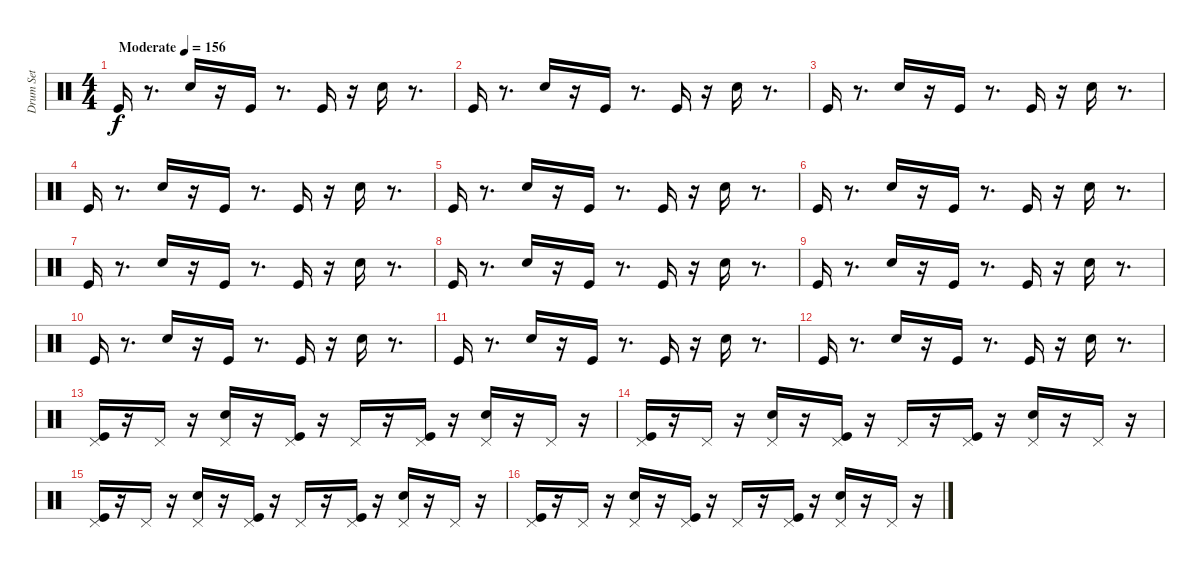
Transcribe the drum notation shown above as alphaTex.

\track ("Drum Set" "Drum Set") {instrument percussion}
\staff {score}
\articulation defaults
\ts (4 4)
\tempo (156 "Moderate")
\clef neutral
\ks c "Kick (hit)".16{dy f}
r.8{d} "Snare (hit) 2".16 r.16 "Kick (hit)".16 r.8{d} "Kick (hit)".16 r.16 "Snare (hit) 2".16 r.8{d} |
"Kick (hit)".16 r.8{d} "Snare (hit) 2".16 r.16 "Kick (hit)".16 r.8{d} "Kick (hit)".16 r.16 "Snare (hit) 2".16 r.8{d} |
"Kick (hit)".16 r.8{d} "Snare (hit) 2".16 r.16 "Kick (hit)".16 r.8{d} "Kick (hit)".16 r.16 "Snare (hit) 2".16 r.8{d} |
"Kick (hit)".16 r.8{d} "Snare (hit) 2".16 r.16 "Kick (hit)".16 r.8{d} "Kick (hit)".16 r.16 "Snare (hit) 2".16 r.8{d} |
"Kick (hit)".16 r.8{d} "Snare (hit) 2".16 r.16 "Kick (hit)".16 r.8{d} "Kick (hit)".16 r.16 "Snare (hit) 2".16 r.8{d} |
"Kick (hit)".16 r.8{d} "Snare (hit) 2".16 r.16 "Kick (hit)".16 r.8{d} "Kick (hit)".16 r.16 "Snare (hit) 2".16 r.8{d} |
"Kick (hit)".16 r.8{d} "Snare (hit) 2".16 r.16 "Kick (hit)".16 r.8{d} "Kick (hit)".16 r.16 "Snare (hit) 2".16 r.8{d} |
"Kick (hit)".16 r.8{d} "Snare (hit) 2".16 r.16 "Kick (hit)".16 r.8{d} "Kick (hit)".16 r.16 "Snare (hit) 2".16 r.8{d} |
"Kick (hit)".16 r.8{d} "Snare (hit) 2".16 r.16 "Kick (hit)".16 r.8{d} "Kick (hit)".16 r.16 "Snare (hit) 2".16 r.8{d} |
"Kick (hit)".16 r.8{d} "Snare (hit) 2".16 r.16 "Kick (hit)".16 r.8{d} "Kick (hit)".16 r.16 "Snare (hit) 2".16 r.8{d} |
"Kick (hit)".16 r.8{d} "Snare (hit) 2".16 r.16 "Kick (hit)".16 r.8{d} "Kick (hit)".16 r.16 "Snare (hit) 2".16 r.8{d} |
"Kick (hit)".16 r.8{d} "Snare (hit) 2".16 r.16 "Kick (hit)".16 r.8{d} "Kick (hit)".16 r.16 "Snare (hit) 2".16 r.8{d} |
("Pedal Hi-Hat (hit)" "Kick (hit)").16 r.16 "Pedal Hi-Hat (hit)".16 r.16 ("Pedal Hi-Hat (hit)" "Snare (hit) 2").16 r.16 ("Pedal Hi-Hat (hit)" "Kick (hit)").16 r.16 "Pedal Hi-Hat (hit)".16 r.16 ("Pedal Hi-Hat (hit)" "Kick (hit)").16 r.16 ("Pedal Hi-Hat (hit)" "Snare (hit) 2").16 r.16 "Pedal Hi-Hat (hit)".16 r.16 |
("Pedal Hi-Hat (hit)" "Kick (hit)").16 r.16 "Pedal Hi-Hat (hit)".16 r.16 ("Pedal Hi-Hat (hit)" "Snare (hit) 2").16 r.16 ("Pedal Hi-Hat (hit)" "Kick (hit)").16 r.16 "Pedal Hi-Hat (hit)".16 r.16 ("Pedal Hi-Hat (hit)" "Kick (hit)").16 r.16 ("Pedal Hi-Hat (hit)" "Snare (hit) 2").16 r.16 "Pedal Hi-Hat (hit)".16 r.16 |
("Pedal Hi-Hat (hit)" "Kick (hit)").16 r.16 "Pedal Hi-Hat (hit)".16 r.16 ("Pedal Hi-Hat (hit)" "Snare (hit) 2").16 r.16 ("Pedal Hi-Hat (hit)" "Kick (hit)").16 r.16 "Pedal Hi-Hat (hit)".16 r.16 ("Pedal Hi-Hat (hit)" "Kick (hit)").16 r.16 ("Pedal Hi-Hat (hit)" "Snare (hit) 2").16 r.16 "Pedal Hi-Hat (hit)".16 r.16 |
("Pedal Hi-Hat (hit)" "Kick (hit)").16 r.16 "Pedal Hi-Hat (hit)".16 r.16 ("Pedal Hi-Hat (hit)" "Snare (hit) 2").16 r.16 ("Pedal Hi-Hat (hit)" "Kick (hit)").16 r.16 "Pedal Hi-Hat (hit)".16 r.16 ("Pedal Hi-Hat (hit)" "Kick (hit)").16 r.16 ("Pedal Hi-Hat (hit)" "Snare (hit) 2").16 r.16 "Pedal Hi-Hat (hit)".16 r.16
